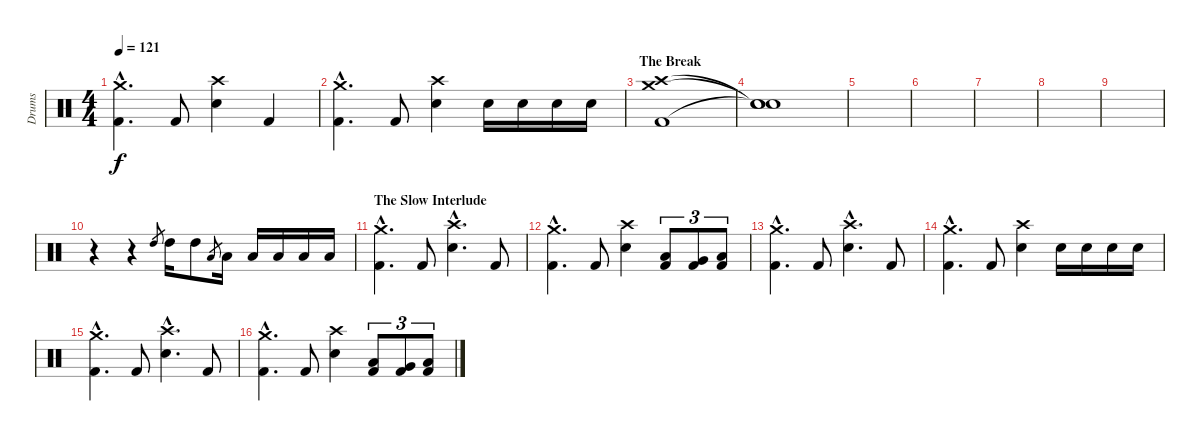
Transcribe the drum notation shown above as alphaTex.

\track ("Drums" "Drums") {instrument percussion}
\staff {score}
\articulation defaults
\ts (4 4)
\tempo 121
\clef neutral
\ks c
("Crash medium (hit)"{hac} "Kick (hit) 2"{hac}).4{d dy f} "Kick (hit) 2".8 ("Crash high (hit)" "Electric Snare (hit)").4 "Kick (hit) 2".4 |
("Crash medium (hit)"{hac} "Kick (hit) 2"{hac}).4{d} "Kick (hit) 2".8 ("Crash high (hit)" "Electric Snare (hit)").4 "Electric Snare (hit)".16 "Electric Snare (hit)".16 "Electric Snare (hit)".16 "Electric Snare (hit)".16 |
\section ("" "The Break")
("Crash high (hit)" "Crash medium (hit)" "Kick (hit) 2").1 |
("Snare (hit)"{t} "Snare (hit)"{t} "Snare (hit)"{t}).1 |
|
|
|
|
|
r.4 r.4 "High Tom (hit)".8{gr} "High Tom (hit)".16 "High Tom (hit)".8 "Low Tom (hit)".8{gr} "Low Tom (hit)".16 "Low Tom (hit)".16 "Low Tom (hit)".16 "Low Tom (hit)".16 "Low Tom (hit)".16 |
\section ("" "The Slow Interlude")
("Crash medium (hit)"{hac} "Kick (hit) 2"{hac}).4{d} "Kick (hit) 2".8 ("Crash high (hit)"{hac} "Electric Snare (hit)"{hac}).4{d} "Kick (hit) 2".8 |
("Crash medium (hit)"{hac} "Kick (hit) 2"{hac}).4{d} "Kick (hit) 2".8 ("Crash high (hit)" "Electric Snare (hit)").4 ("Low Tom (hit)" "Kick (hit) 2").8{tu (3 2)} ("Very Low Tom (hit)" "Kick (hit) 2").8{tu (3 2)} ("Low Floor Tom (hit)" "Kick (hit) 2").8{tu (3 2)} |
("Crash medium (hit)"{hac} "Kick (hit) 2"{hac}).4{d} "Kick (hit) 2".8 ("Crash high (hit)"{hac} "Electric Snare (hit)"{hac}).4{d} "Kick (hit) 2".8 |
("Crash medium (hit)"{hac} "Kick (hit) 2"{hac}).4{d} "Kick (hit) 2".8 ("Crash high (hit)" "Electric Snare (hit)").4 "Electric Snare (hit)".16 "Electric Snare (hit)".16 "Electric Snare (hit)".16 "Electric Snare (hit)".16 |
("Crash medium (hit)"{hac} "Kick (hit) 2"{hac}).4{d} "Kick (hit) 2".8 ("Crash high (hit)"{hac} "Electric Snare (hit)"{hac}).4{d} "Kick (hit) 2".8 |
("Crash medium (hit)"{hac} "Kick (hit) 2"{hac}).4{d} "Kick (hit) 2".8 ("Crash high (hit)" "Electric Snare (hit)").4 ("Low Tom (hit)" "Kick (hit) 2").8{tu (3 2)} ("Very Low Tom (hit)" "Kick (hit) 2").8{tu (3 2)} ("Low Floor Tom (hit)" "Kick (hit) 2").8{tu (3 2)}
